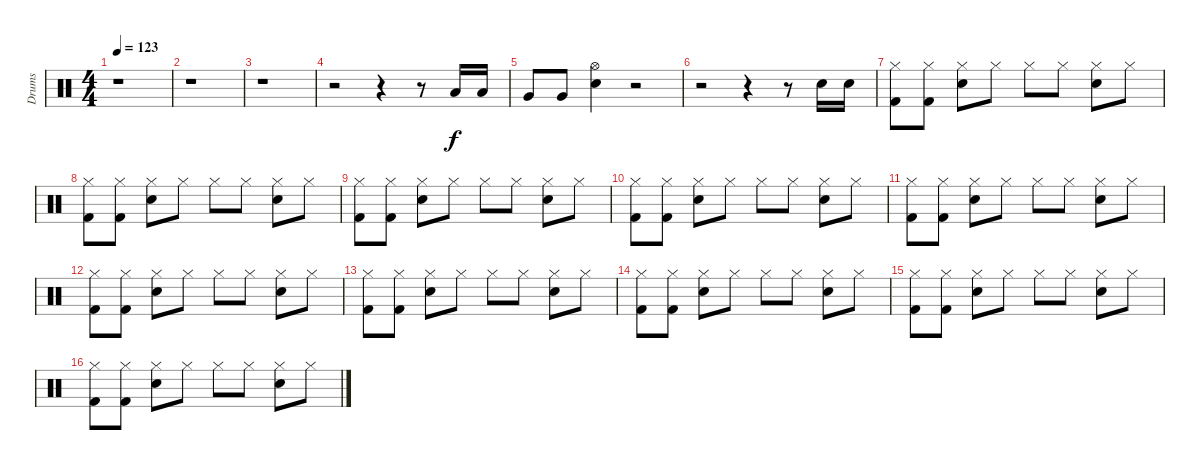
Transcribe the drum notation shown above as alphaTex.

\track ("Drums" "Drums") {instrument percussion}
\staff {score}
\articulation defaults
\ts (4 4)
\tempo 123
\clef neutral
\ks c
r.1{dy f} |
r.1 |
r.1 |
r.2 r.4 r.8 "Low Tom (hit)".16 "Low Tom (hit)".16 |
"Very Low Tom (hit)".8 "Very Low Tom (hit)".8 ("Hi-Hat (open)" "Snare (hit) 2").4 r.2 |
r.2 r.4 r.8 "Snare (hit) 2".16 "Snare (hit) 2".16 |
("Hi-Hat (closed)" "Kick (hit) 2").8 ("Hi-Hat (closed)" "Kick (hit) 2").8 ("Hi-Hat (closed)" "Snare (hit) 2").8 "Hi-Hat (closed)".8 "Hi-Hat (closed)".8 "Hi-Hat (closed)".8 ("Hi-Hat (closed)" "Snare (hit) 2").8 "Hi-Hat (closed)".8 |
("Hi-Hat (closed)" "Kick (hit) 2").8 ("Hi-Hat (closed)" "Kick (hit) 2").8 ("Hi-Hat (closed)" "Snare (hit) 2").8 "Hi-Hat (closed)".8 "Hi-Hat (closed)".8 "Hi-Hat (closed)".8 ("Hi-Hat (closed)" "Snare (hit) 2").8 "Hi-Hat (closed)".8 |
("Hi-Hat (closed)" "Kick (hit) 2").8 ("Hi-Hat (closed)" "Kick (hit) 2").8 ("Hi-Hat (closed)" "Snare (hit) 2").8 "Hi-Hat (closed)".8 "Hi-Hat (closed)".8 "Hi-Hat (closed)".8 ("Hi-Hat (closed)" "Snare (hit) 2").8 "Hi-Hat (closed)".8 |
("Hi-Hat (closed)" "Kick (hit) 2").8 ("Hi-Hat (closed)" "Kick (hit) 2").8 ("Hi-Hat (closed)" "Snare (hit) 2").8 "Hi-Hat (closed)".8 "Hi-Hat (closed)".8 "Hi-Hat (closed)".8 ("Hi-Hat (closed)" "Snare (hit) 2").8 "Hi-Hat (closed)".8 |
("Hi-Hat (closed)" "Kick (hit) 2").8 ("Hi-Hat (closed)" "Kick (hit) 2").8 ("Hi-Hat (closed)" "Snare (hit) 2").8 "Hi-Hat (closed)".8 "Hi-Hat (closed)".8 "Hi-Hat (closed)".8 ("Hi-Hat (closed)" "Snare (hit) 2").8 "Hi-Hat (closed)".8 |
("Hi-Hat (closed)" "Kick (hit) 2").8 ("Hi-Hat (closed)" "Kick (hit) 2").8 ("Hi-Hat (closed)" "Snare (hit) 2").8 "Hi-Hat (closed)".8 "Hi-Hat (closed)".8 "Hi-Hat (closed)".8 ("Hi-Hat (closed)" "Snare (hit) 2").8 "Hi-Hat (closed)".8 |
("Hi-Hat (closed)" "Kick (hit) 2").8 ("Hi-Hat (closed)" "Kick (hit) 2").8 ("Hi-Hat (closed)" "Snare (hit) 2").8 "Hi-Hat (closed)".8 "Hi-Hat (closed)".8 "Hi-Hat (closed)".8 ("Hi-Hat (closed)" "Snare (hit) 2").8 "Hi-Hat (closed)".8 |
("Hi-Hat (closed)" "Kick (hit) 2").8 ("Hi-Hat (closed)" "Kick (hit) 2").8 ("Hi-Hat (closed)" "Snare (hit) 2").8 "Hi-Hat (closed)".8 "Hi-Hat (closed)".8 "Hi-Hat (closed)".8 ("Hi-Hat (closed)" "Snare (hit) 2").8 "Hi-Hat (closed)".8 |
("Hi-Hat (closed)" "Kick (hit) 2").8 ("Hi-Hat (closed)" "Kick (hit) 2").8 ("Hi-Hat (closed)" "Snare (hit) 2").8 "Hi-Hat (closed)".8 "Hi-Hat (closed)".8 "Hi-Hat (closed)".8 ("Hi-Hat (closed)" "Snare (hit) 2").8 "Hi-Hat (closed)".8 |
("Hi-Hat (closed)" "Kick (hit) 2").8 ("Hi-Hat (closed)" "Kick (hit) 2").8 ("Hi-Hat (closed)" "Snare (hit) 2").8 "Hi-Hat (closed)".8 "Hi-Hat (closed)".8 "Hi-Hat (closed)".8 ("Hi-Hat (closed)" "Snare (hit) 2").8 "Hi-Hat (closed)".8
